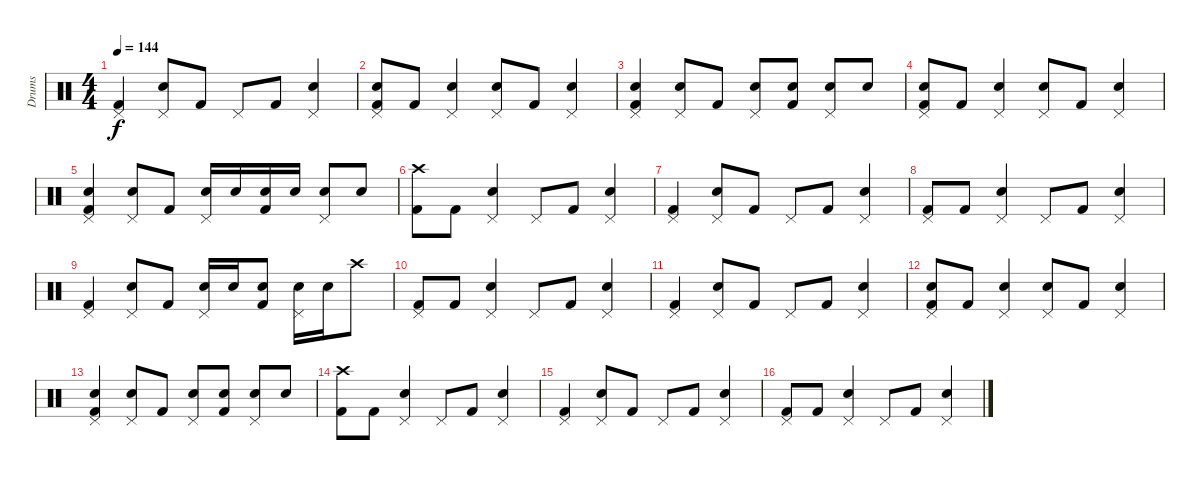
\track ("Drums" "Drums") {instrument percussion}
\staff {score}
\articulation defaults
\ts (4 4)
\tempo 144
\clef neutral
\ks c
("Kick (hit) 2" "Pedal Hi-Hat (hit)").4{dy f} ("Electric Snare (hit)" "Pedal Hi-Hat (hit)").8 "Kick (hit) 2".8 "Pedal Hi-Hat (hit)".8 "Kick (hit) 2".8 ("Electric Snare (hit)" "Pedal Hi-Hat (hit)").4 |
("Electric Snare (hit)" "Pedal Hi-Hat (hit)" "Kick (hit) 2").8 "Kick (hit) 2".8 ("Pedal Hi-Hat (hit)" "Electric Snare (hit)").4 ("Electric Snare (hit)" "Pedal Hi-Hat (hit)").8 "Kick (hit) 2".8 ("Pedal Hi-Hat (hit)" "Electric Snare (hit)").4 |
("Electric Snare (hit)" "Kick (hit) 2" "Pedal Hi-Hat (hit)").4 ("Electric Snare (hit)" "Pedal Hi-Hat (hit)").8 "Kick (hit) 2".8 ("Electric Snare (hit)" "Pedal Hi-Hat (hit)").8 ("Electric Snare (hit)" "Kick (hit) 2").8 ("Electric Snare (hit)" "Pedal Hi-Hat (hit)").8 "Electric Snare (hit)".8 |
("Electric Snare (hit)" "Pedal Hi-Hat (hit)" "Kick (hit) 2").8 "Kick (hit) 2".8 ("Pedal Hi-Hat (hit)" "Electric Snare (hit)").4 ("Electric Snare (hit)" "Pedal Hi-Hat (hit)").8 "Kick (hit) 2".8 ("Pedal Hi-Hat (hit)" "Electric Snare (hit)").4 |
("Electric Snare (hit)" "Kick (hit) 2" "Pedal Hi-Hat (hit)").4 ("Electric Snare (hit)" "Pedal Hi-Hat (hit)").8 "Kick (hit) 2".8 ("Electric Snare (hit)" "Pedal Hi-Hat (hit)").16 "Electric Snare (hit)".16 ("Electric Snare (hit)" "Kick (hit) 2").16 "Electric Snare (hit)".16 ("Electric Snare (hit)" "Pedal Hi-Hat (hit)").8 "Electric Snare (hit)".8 |
("Crash high (hit)" "Kick (hit) 2").8 "Kick (hit) 2".8 ("Pedal Hi-Hat (hit)" "Electric Snare (hit)").4 "Pedal Hi-Hat (hit)".8 "Kick (hit) 2".8 ("Pedal Hi-Hat (hit)" "Electric Snare (hit)").4 |
("Kick (hit) 2" "Pedal Hi-Hat (hit)").4 ("Electric Snare (hit)" "Pedal Hi-Hat (hit)").8 "Kick (hit) 2".8 "Pedal Hi-Hat (hit)".8 "Kick (hit) 2".8 ("Electric Snare (hit)" "Pedal Hi-Hat (hit)").4 |
("Pedal Hi-Hat (hit)" "Kick (hit) 2").8 "Kick (hit) 2".8 ("Pedal Hi-Hat (hit)" "Electric Snare (hit)").4 "Pedal Hi-Hat (hit)".8 "Kick (hit) 2".8 ("Pedal Hi-Hat (hit)" "Electric Snare (hit)").4 |
("Kick (hit) 2" "Pedal Hi-Hat (hit)").4 ("Electric Snare (hit)" "Pedal Hi-Hat (hit)").8 "Kick (hit) 2".8 ("Electric Snare (hit)" "Pedal Hi-Hat (hit)").16 "Electric Snare (hit)".16 ("Electric Snare (hit)" "Kick (hit) 2").8 ("Electric Snare (hit)" "Pedal Hi-Hat (hit)").16 "Electric Snare (hit)".16 "Crash high (hit)".8 |
("Pedal Hi-Hat (hit)" "Kick (hit) 2").8 "Kick (hit) 2".8 ("Pedal Hi-Hat (hit)" "Electric Snare (hit)").4 "Pedal Hi-Hat (hit)".8 "Kick (hit) 2".8 ("Pedal Hi-Hat (hit)" "Electric Snare (hit)").4 |
("Kick (hit) 2" "Pedal Hi-Hat (hit)").4 ("Electric Snare (hit)" "Pedal Hi-Hat (hit)").8 "Kick (hit) 2".8 "Pedal Hi-Hat (hit)".8 "Kick (hit) 2".8 ("Electric Snare (hit)" "Pedal Hi-Hat (hit)").4 |
("Electric Snare (hit)" "Pedal Hi-Hat (hit)" "Kick (hit) 2").8 "Kick (hit) 2".8 ("Pedal Hi-Hat (hit)" "Electric Snare (hit)").4 ("Electric Snare (hit)" "Pedal Hi-Hat (hit)").8 "Kick (hit) 2".8 ("Pedal Hi-Hat (hit)" "Electric Snare (hit)").4 |
("Electric Snare (hit)" "Kick (hit) 2" "Pedal Hi-Hat (hit)").4 ("Electric Snare (hit)" "Pedal Hi-Hat (hit)").8 "Kick (hit) 2".8 ("Electric Snare (hit)" "Pedal Hi-Hat (hit)").8 ("Electric Snare (hit)" "Kick (hit) 2").8 ("Electric Snare (hit)" "Pedal Hi-Hat (hit)").8 "Electric Snare (hit)".8 |
("Crash high (hit)" "Kick (hit) 2").8 "Kick (hit) 2".8 ("Pedal Hi-Hat (hit)" "Electric Snare (hit)").4 "Pedal Hi-Hat (hit)".8 "Kick (hit) 2".8 ("Pedal Hi-Hat (hit)" "Electric Snare (hit)").4 |
("Kick (hit) 2" "Pedal Hi-Hat (hit)").4 ("Electric Snare (hit)" "Pedal Hi-Hat (hit)").8 "Kick (hit) 2".8 "Pedal Hi-Hat (hit)".8 "Kick (hit) 2".8 ("Electric Snare (hit)" "Pedal Hi-Hat (hit)").4 |
("Pedal Hi-Hat (hit)" "Kick (hit) 2").8 "Kick (hit) 2".8 ("Pedal Hi-Hat (hit)" "Electric Snare (hit)").4 "Pedal Hi-Hat (hit)".8 "Kick (hit) 2".8 ("Pedal Hi-Hat (hit)" "Electric Snare (hit)").4
